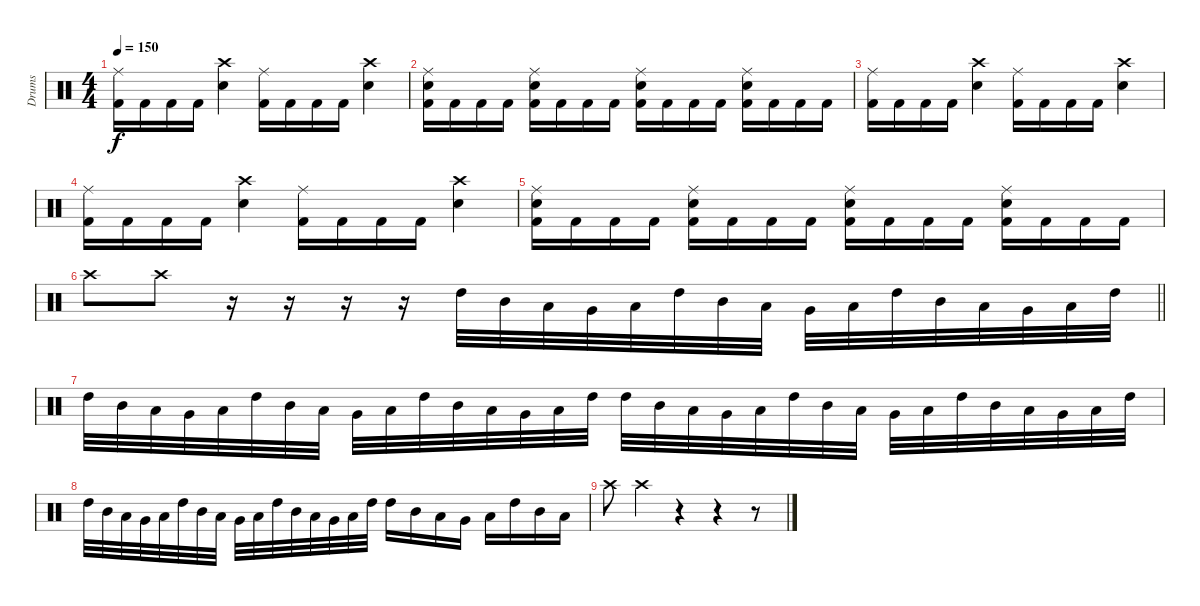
\track ("Drums" "Drums") {instrument percussion}
\staff {score}
\articulation defaults
\ts (4 4)
\tempo 150
\clef neutral
\ks c
("Ride (middle)" "Kick (hit) 2").16{dy f} "Kick (hit) 2".16 "Kick (hit) 2".16 "Kick (hit) 2".16 ("Crash high (hit)" "Snare (hit) 2").4 ("Ride (middle)" "Kick (hit) 2").16 "Kick (hit) 2".16 "Kick (hit) 2".16 "Kick (hit) 2".16 ("Crash high (hit)" "Snare (hit) 2").4 |
("Ride (middle)" "Snare (hit) 2" "Kick (hit) 2").16 "Kick (hit) 2".16 "Kick (hit) 2".16 "Kick (hit) 2".16 ("Ride (middle)" "Snare (hit) 2" "Kick (hit) 2").16 "Kick (hit) 2".16 "Kick (hit) 2".16 "Kick (hit) 2".16 ("Ride (middle)" "Snare (hit) 2" "Kick (hit) 2").16 "Kick (hit) 2".16 "Kick (hit) 2".16 "Kick (hit) 2".16 ("Ride (middle)" "Snare (hit) 2" "Kick (hit) 2").16 "Kick (hit) 2".16 "Kick (hit) 2".16 "Kick (hit) 2".16 |
("Ride (middle)" "Kick (hit) 2").16 "Kick (hit) 2".16 "Kick (hit) 2".16 "Kick (hit) 2".16 ("Crash high (hit)" "Snare (hit) 2").4 ("Ride (middle)" "Kick (hit) 2").16 "Kick (hit) 2".16 "Kick (hit) 2".16 "Kick (hit) 2".16 ("Crash high (hit)" "Snare (hit) 2").4 |
("Ride (middle)" "Kick (hit) 2").16 "Kick (hit) 2".16 "Kick (hit) 2".16 "Kick (hit) 2".16 ("Crash high (hit)" "Snare (hit) 2").4 ("Ride (middle)" "Kick (hit) 2").16 "Kick (hit) 2".16 "Kick (hit) 2".16 "Kick (hit) 2".16 ("Crash high (hit)" "Snare (hit) 2").4 |
("Ride (middle)" "Snare (hit) 2" "Kick (hit) 2").16 "Kick (hit) 2".16 "Kick (hit) 2".16 "Kick (hit) 2".16 ("Ride (middle)" "Snare (hit) 2" "Kick (hit) 2").16 "Kick (hit) 2".16 "Kick (hit) 2".16 "Kick (hit) 2".16 ("Ride (middle)" "Snare (hit) 2" "Kick (hit) 2").16 "Kick (hit) 2".16 "Kick (hit) 2".16 "Kick (hit) 2".16 ("Ride (middle)" "Snare (hit) 2" "Kick (hit) 2").16 "Kick (hit) 2".16 "Kick (hit) 2".16 "Kick (hit) 2".16 |
\barLineRight lightlight "Crash high (hit)".8 "Crash high (hit)".8
r.16 r.16 r.16 r.16 "High Tom (hit)".32 "Mid Tom (hit)".32 "Low Tom (hit)".32 "Very Low Tom (hit)".32 "Low Floor Tom (hit)".32 "High Tom (hit)".32 "Mid Tom (hit)".32 "Low Tom (hit)".32 "Very Low Tom (hit)".32 "Low Floor Tom (hit)".32 "High Tom (hit)".32 "Mid Tom (hit)".32 "Low Tom (hit)".32 "Very Low Tom (hit)".32 "Low Floor Tom (hit)".32 "High Tom (hit)".32 |
"High Tom (hit)".32 "Mid Tom (hit)".32 "Low Tom (hit)".32 "Very Low Tom (hit)".32 "Low Floor Tom (hit)".32 "High Tom (hit)".32 "Mid Tom (hit)".32 "Low Tom (hit)".32 "Very Low Tom (hit)".32 "Low Floor Tom (hit)".32 "High Tom (hit)".32 "Mid Tom (hit)".32 "Low Tom (hit)".32 "Very Low Tom (hit)".32 "Low Floor Tom (hit)".32 "High Tom (hit)".32 "High Tom (hit)".32 "Mid Tom (hit)".32 "Low Tom (hit)".32 "Very Low Tom (hit)".32 "Low Floor Tom (hit)".32 "High Tom (hit)".32 "Mid Tom (hit)".32 "Low Tom (hit)".32 "Very Low Tom (hit)".32 "Low Floor Tom (hit)".32 "High Tom (hit)".32 "Mid Tom (hit)".32 "Low Tom (hit)".32 "Very Low Tom (hit)".32 "Low Floor Tom (hit)".32 "High Tom (hit)".32 |
"High Tom (hit)".32 "Mid Tom (hit)".32 "Low Tom (hit)".32 "Very Low Tom (hit)".32 "Low Floor Tom (hit)".32 "High Tom (hit)".32 "Mid Tom (hit)".32 "Low Tom (hit)".32 "Very Low Tom (hit)".32 "Low Floor Tom (hit)".32 "High Tom (hit)".32 "Mid Tom (hit)".32 "Low Tom (hit)".32 "Very Low Tom (hit)".32 "Low Floor Tom (hit)".32 "High Tom (hit)".32 "High Tom (hit)".16 "Mid Tom (hit)".16 "Low Tom (hit)".16 "Very Low Tom (hit)".16 "Low Floor Tom (hit)".16 "High Tom (hit)".16 "Mid Tom (hit)".16 "Low Tom (hit)".16 |
"Crash high (hit)".8 "Crash high (hit)".4 r.4 r.4 r.8
